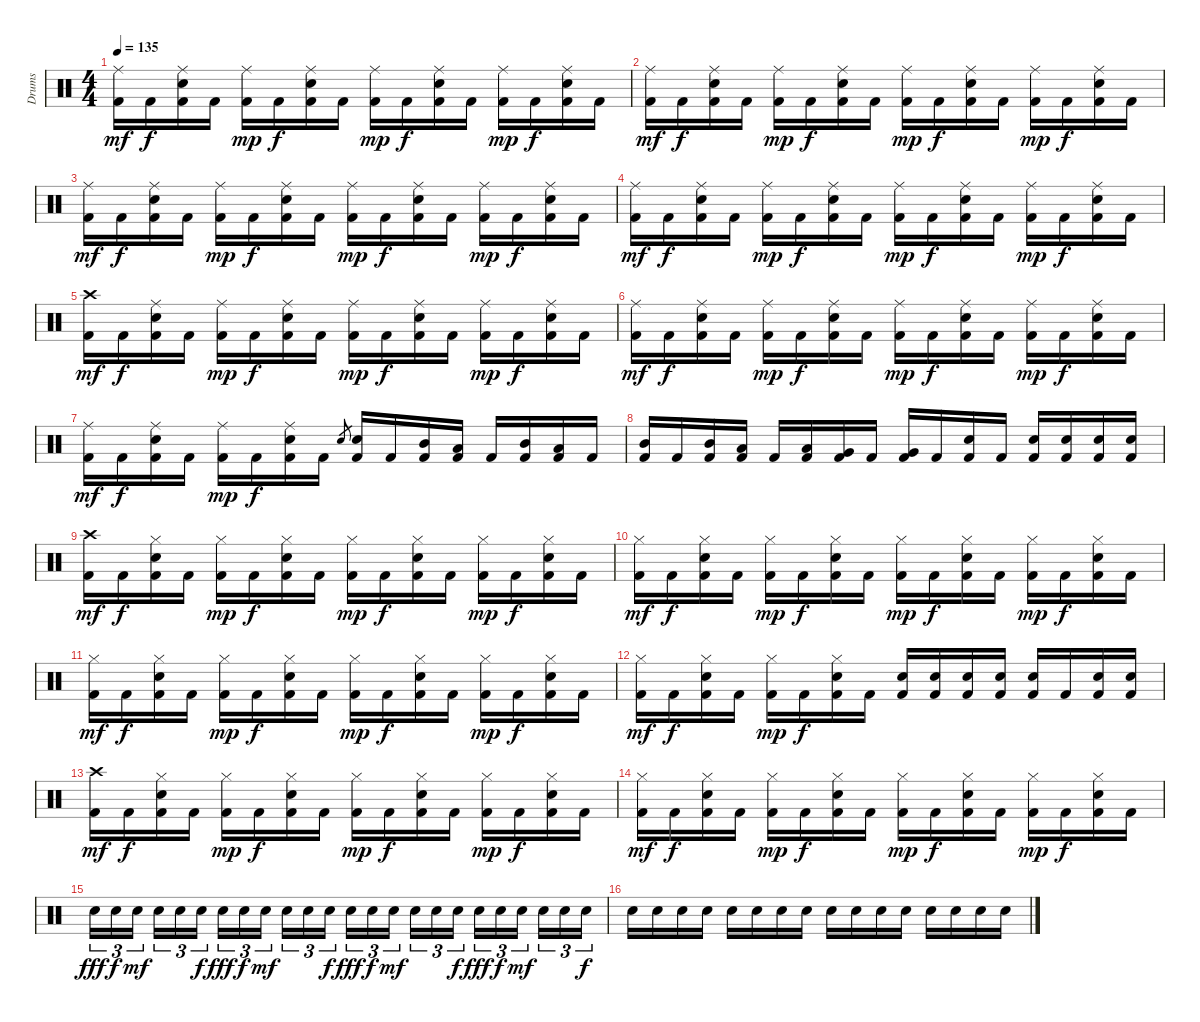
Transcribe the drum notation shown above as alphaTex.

\track ("Drums" "Drums") {instrument percussion}
\staff {score}
\articulation defaults
\ts (4 4)
\tempo 135
\clef neutral
\ks c
("Ride (middle)" "Kick (hit) 2").16{dy mf} "Kick (hit) 2".16{dy f} ("Ride (middle)" "Snare (hit) 2" "Kick (hit) 2").16 "Kick (hit) 2".16 ("Ride (middle)" "Kick (hit) 2").16{dy mp} "Kick (hit) 2".16{dy f} ("Ride (middle)" "Snare (hit) 2" "Kick (hit) 2").16 "Kick (hit) 2".16 ("Ride (middle)" "Kick (hit) 2").16{dy mp} "Kick (hit) 2".16{dy f} ("Ride (middle)" "Snare (hit) 2" "Kick (hit) 2").16 "Kick (hit) 2".16 ("Ride (middle)" "Kick (hit) 2").16{dy mp} "Kick (hit) 2".16{dy f} ("Ride (middle)" "Snare (hit) 2" "Kick (hit) 2").16 "Kick (hit) 2".16 |
("Ride (middle)" "Kick (hit) 2").16{dy mf} "Kick (hit) 2".16{dy f} ("Ride (middle)" "Snare (hit) 2" "Kick (hit) 2").16 "Kick (hit) 2".16 ("Ride (middle)" "Kick (hit) 2").16{dy mp} "Kick (hit) 2".16{dy f} ("Ride (middle)" "Snare (hit) 2" "Kick (hit) 2").16 "Kick (hit) 2".16 ("Ride (middle)" "Kick (hit) 2").16{dy mp} "Kick (hit) 2".16{dy f} ("Ride (middle)" "Snare (hit) 2" "Kick (hit) 2").16 "Kick (hit) 2".16 ("Ride (middle)" "Kick (hit) 2").16{dy mp} "Kick (hit) 2".16{dy f} ("Ride (middle)" "Snare (hit) 2" "Kick (hit) 2").16 "Kick (hit) 2".16 |
("Ride (middle)" "Kick (hit) 2").16{dy mf} "Kick (hit) 2".16{dy f} ("Ride (middle)" "Snare (hit) 2" "Kick (hit) 2").16 "Kick (hit) 2".16 ("Ride (middle)" "Kick (hit) 2").16{dy mp} "Kick (hit) 2".16{dy f} ("Ride (middle)" "Snare (hit) 2" "Kick (hit) 2").16 "Kick (hit) 2".16 ("Ride (middle)" "Kick (hit) 2").16{dy mp} "Kick (hit) 2".16{dy f} ("Ride (middle)" "Snare (hit) 2" "Kick (hit) 2").16 "Kick (hit) 2".16 ("Ride (middle)" "Kick (hit) 2").16{dy mp} "Kick (hit) 2".16{dy f} ("Ride (middle)" "Snare (hit) 2" "Kick (hit) 2").16 "Kick (hit) 2".16 |
("Ride (middle)" "Kick (hit) 2").16{dy mf} "Kick (hit) 2".16{dy f} ("Ride (middle)" "Snare (hit) 2" "Kick (hit) 2").16 "Kick (hit) 2".16 ("Ride (middle)" "Kick (hit) 2").16{dy mp} "Kick (hit) 2".16{dy f} ("Ride (middle)" "Snare (hit) 2" "Kick (hit) 2").16 "Kick (hit) 2".16 ("Ride (middle)" "Kick (hit) 2").16{dy mp} "Kick (hit) 2".16{dy f} ("Ride (middle)" "Snare (hit) 2" "Kick (hit) 2").16 "Kick (hit) 2".16 ("Ride (middle)" "Kick (hit) 2").16{dy mp} "Kick (hit) 2".16{dy f} ("Ride (middle)" "Snare (hit) 2" "Kick (hit) 2").16 "Kick (hit) 2".16 |
("Crash high (hit)" "Kick (hit) 2").16{dy mf} "Kick (hit) 2".16{dy f} ("Ride (middle)" "Snare (hit) 2" "Kick (hit) 2").16 "Kick (hit) 2".16 ("Ride (middle)" "Kick (hit) 2").16{dy mp} "Kick (hit) 2".16{dy f} ("Ride (middle)" "Snare (hit) 2" "Kick (hit) 2").16 "Kick (hit) 2".16 ("Ride (middle)" "Kick (hit) 2").16{dy mp} "Kick (hit) 2".16{dy f} ("Ride (middle)" "Snare (hit) 2" "Kick (hit) 2").16 "Kick (hit) 2".16 ("Ride (middle)" "Kick (hit) 2").16{dy mp} "Kick (hit) 2".16{dy f} ("Ride (middle)" "Snare (hit) 2" "Kick (hit) 2").16 "Kick (hit) 2".16 |
("Ride (middle)" "Kick (hit) 2").16{dy mf} "Kick (hit) 2".16{dy f} ("Ride (middle)" "Snare (hit) 2" "Kick (hit) 2").16 "Kick (hit) 2".16 ("Ride (middle)" "Kick (hit) 2").16{dy mp} "Kick (hit) 2".16{dy f} ("Ride (middle)" "Snare (hit) 2" "Kick (hit) 2").16 "Kick (hit) 2".16 ("Ride (middle)" "Kick (hit) 2").16{dy mp} "Kick (hit) 2".16{dy f} ("Ride (middle)" "Snare (hit) 2" "Kick (hit) 2").16 "Kick (hit) 2".16 ("Ride (middle)" "Kick (hit) 2").16{dy mp} "Kick (hit) 2".16{dy f} ("Ride (middle)" "Snare (hit) 2" "Kick (hit) 2").16 "Kick (hit) 2".16 |
("Ride (middle)" "Kick (hit) 2").16{dy mf} "Kick (hit) 2".16{dy f} ("Ride (middle)" "Snare (hit) 2" "Kick (hit) 2").16 "Kick (hit) 2".16 ("Ride (middle)" "Kick (hit) 2").16{dy mp} "Kick (hit) 2".16{dy f} ("Ride (middle)" "Snare (hit) 2" "Kick (hit) 2").16 "Kick (hit) 2".16 "Snare (hit) 2".8{gr} ("Snare (hit) 2" "Kick (hit) 2").16 "Kick (hit) 2".16 ("Mid Tom (hit)" "Kick (hit) 2").16 ("Low Tom (hit)" "Kick (hit) 2").16 "Kick (hit) 2".16 ("Mid Tom (hit)" "Kick (hit) 2").16 ("Low Tom (hit)" "Kick (hit) 2").16 "Kick (hit) 2".16 |
("Mid Tom (hit)" "Kick (hit) 2").16 "Kick (hit) 2".16 ("Mid Tom (hit)" "Kick (hit) 2").16 ("Low Tom (hit)" "Kick (hit) 2").16 "Kick (hit) 2".16 ("Low Tom (hit)" "Kick (hit) 2").16 ("Very Low Tom (hit)" "Kick (hit) 2").16 "Kick (hit) 2".16 ("Very Low Tom (hit)" "Kick (hit) 2").16 "Kick (hit) 2".16 ("Snare (hit) 2" "Kick (hit) 2").16 "Kick (hit) 2".16 ("Snare (hit) 2" "Kick (hit) 2").16 ("Snare (hit) 2" "Kick (hit) 2").16 ("Snare (hit) 2" "Kick (hit) 2").16 ("Snare (hit) 2" "Kick (hit) 2").16 |
("Crash high (hit)" "Kick (hit) 2").16{dy mf} "Kick (hit) 2".16{dy f} ("Hi-Hat (closed)" "Snare (hit) 2" "Kick (hit) 2").16 "Kick (hit) 2".16 ("Hi-Hat (closed)" "Kick (hit) 2").16{dy mp} "Kick (hit) 2".16{dy f} ("Hi-Hat (closed)" "Snare (hit) 2" "Kick (hit) 2").16 "Kick (hit) 2".16 ("Hi-Hat (closed)" "Kick (hit) 2").16{dy mp} "Kick (hit) 2".16{dy f} ("Hi-Hat (closed)" "Snare (hit) 2" "Kick (hit) 2").16 "Kick (hit) 2".16 ("Hi-Hat (closed)" "Kick (hit) 2").16{dy mp} "Kick (hit) 2".16{dy f} ("Hi-Hat (closed)" "Snare (hit) 2" "Kick (hit) 2").16 "Kick (hit) 2".16 |
("Hi-Hat (closed)" "Kick (hit) 2").16{dy mf} "Kick (hit) 2".16{dy f} ("Hi-Hat (closed)" "Snare (hit) 2" "Kick (hit) 2").16 "Kick (hit) 2".16 ("Hi-Hat (closed)" "Kick (hit) 2").16{dy mp} "Kick (hit) 2".16{dy f} ("Hi-Hat (closed)" "Snare (hit) 2" "Kick (hit) 2").16 "Kick (hit) 2".16 ("Hi-Hat (closed)" "Kick (hit) 2").16{dy mp} "Kick (hit) 2".16{dy f} ("Hi-Hat (closed)" "Snare (hit) 2" "Kick (hit) 2").16 "Kick (hit) 2".16 ("Hi-Hat (closed)" "Kick (hit) 2").16{dy mp} "Kick (hit) 2".16{dy f} ("Hi-Hat (closed)" "Snare (hit) 2" "Kick (hit) 2").16 "Kick (hit) 2".16 |
("Hi-Hat (closed)" "Kick (hit) 2").16{dy mf} "Kick (hit) 2".16{dy f} ("Hi-Hat (closed)" "Snare (hit) 2" "Kick (hit) 2").16 "Kick (hit) 2".16 ("Hi-Hat (closed)" "Kick (hit) 2").16{dy mp} "Kick (hit) 2".16{dy f} ("Hi-Hat (closed)" "Snare (hit) 2" "Kick (hit) 2").16 "Kick (hit) 2".16 ("Hi-Hat (closed)" "Kick (hit) 2").16{dy mp} "Kick (hit) 2".16{dy f} ("Hi-Hat (closed)" "Snare (hit) 2" "Kick (hit) 2").16 "Kick (hit) 2".16 ("Hi-Hat (closed)" "Kick (hit) 2").16{dy mp} "Kick (hit) 2".16{dy f} ("Hi-Hat (closed)" "Snare (hit) 2" "Kick (hit) 2").16 "Kick (hit) 2".16 |
("Hi-Hat (closed)" "Kick (hit) 2").16{dy mf} "Kick (hit) 2".16{dy f} ("Hi-Hat (closed)" "Snare (hit) 2" "Kick (hit) 2").16 "Kick (hit) 2".16 ("Hi-Hat (closed)" "Kick (hit) 2").16{dy mp} "Kick (hit) 2".16{dy f} ("Hi-Hat (closed)" "Snare (hit) 2" "Kick (hit) 2").16 "Kick (hit) 2".16 ("Snare (hit) 2" "Kick (hit) 2").16 ("Snare (hit) 2" "Kick (hit) 2").16 ("Snare (hit) 2" "Kick (hit) 2").16 ("Snare (hit) 2" "Kick (hit) 2").16 ("Snare (hit) 2" "Kick (hit) 2").16 "Kick (hit) 2".16 ("Snare (hit) 2" "Kick (hit) 2").16 ("Snare (hit) 2" "Kick (hit) 2").16 |
("Crash high (hit)" "Kick (hit) 2").16{dy mf} "Kick (hit) 2".16{dy f} ("Hi-Hat (closed)" "Snare (hit) 2" "Kick (hit) 2").16 "Kick (hit) 2".16 ("Hi-Hat (closed)" "Kick (hit) 2").16{dy mp} "Kick (hit) 2".16{dy f} ("Hi-Hat (closed)" "Snare (hit) 2" "Kick (hit) 2").16 "Kick (hit) 2".16 ("Hi-Hat (closed)" "Kick (hit) 2").16{dy mp} "Kick (hit) 2".16{dy f} ("Hi-Hat (closed)" "Snare (hit) 2" "Kick (hit) 2").16 "Kick (hit) 2".16 ("Hi-Hat (closed)" "Kick (hit) 2").16{dy mp} "Kick (hit) 2".16{dy f} ("Hi-Hat (closed)" "Snare (hit) 2" "Kick (hit) 2").16 "Kick (hit) 2".16 |
("Hi-Hat (closed)" "Kick (hit) 2").16{dy mf} "Kick (hit) 2".16{dy f} ("Hi-Hat (closed)" "Snare (hit) 2" "Kick (hit) 2").16 "Kick (hit) 2".16 ("Hi-Hat (closed)" "Kick (hit) 2").16{dy mp} "Kick (hit) 2".16{dy f} ("Hi-Hat (closed)" "Snare (hit) 2" "Kick (hit) 2").16 "Kick (hit) 2".16 ("Hi-Hat (closed)" "Kick (hit) 2").16{dy mp} "Kick (hit) 2".16{dy f} ("Hi-Hat (closed)" "Snare (hit) 2" "Kick (hit) 2").16 "Kick (hit) 2".16 ("Hi-Hat (closed)" "Kick (hit) 2").16{dy mp} "Kick (hit) 2".16{dy f} ("Hi-Hat (closed)" "Snare (hit) 2" "Kick (hit) 2").16 "Kick (hit) 2".16 |
"Snare (hit) 2".16{tu (3 2) dy fff} "Snare (hit) 2".16{tu (3 2) dy f} "Snare (hit) 2".16{tu (3 2) dy mf} "Snare (hit) 2".16{tu (3 2)} "Snare (hit) 2".16{tu (3 2)} "Snare (hit) 2".16{tu (3 2) dy f} "Snare (hit) 2".16{tu (3 2) dy fff} "Snare (hit) 2".16{tu (3 2) dy f} "Snare (hit) 2".16{tu (3 2) dy mf} "Snare (hit) 2".16{tu (3 2)} "Snare (hit) 2".16{tu (3 2)} "Snare (hit) 2".16{tu (3 2) dy f} "Snare (hit) 2".16{tu (3 2) dy fff} "Snare (hit) 2".16{tu (3 2) dy f} "Snare (hit) 2".16{tu (3 2) dy mf} "Snare (hit) 2".16{tu (3 2)} "Snare (hit) 2".16{tu (3 2)} "Snare (hit) 2".16{tu (3 2) dy f} "Snare (hit) 2".16{tu (3 2) dy fff} "Snare (hit) 2".16{tu (3 2) dy f} "Snare (hit) 2".16{tu (3 2) dy mf} "Snare (hit) 2".16{tu (3 2)} "Snare (hit) 2".16{tu (3 2)} "Snare (hit) 2".16{tu (3 2) dy f} |
"Snare (hit) 2".16 "Snare (hit) 2".16 "Snare (hit) 2".16 "Snare (hit) 2".16 "Snare (hit) 2".16 "Snare (hit) 2".16 "Snare (hit) 2".16 "Snare (hit) 2".16 "Snare (hit) 2".16 "Snare (hit) 2".16 "Snare (hit) 2".16 "Snare (hit) 2".16 "Snare (hit) 2".16 "Snare (hit) 2".16 "Snare (hit) 2".16 "Snare (hit) 2".16
